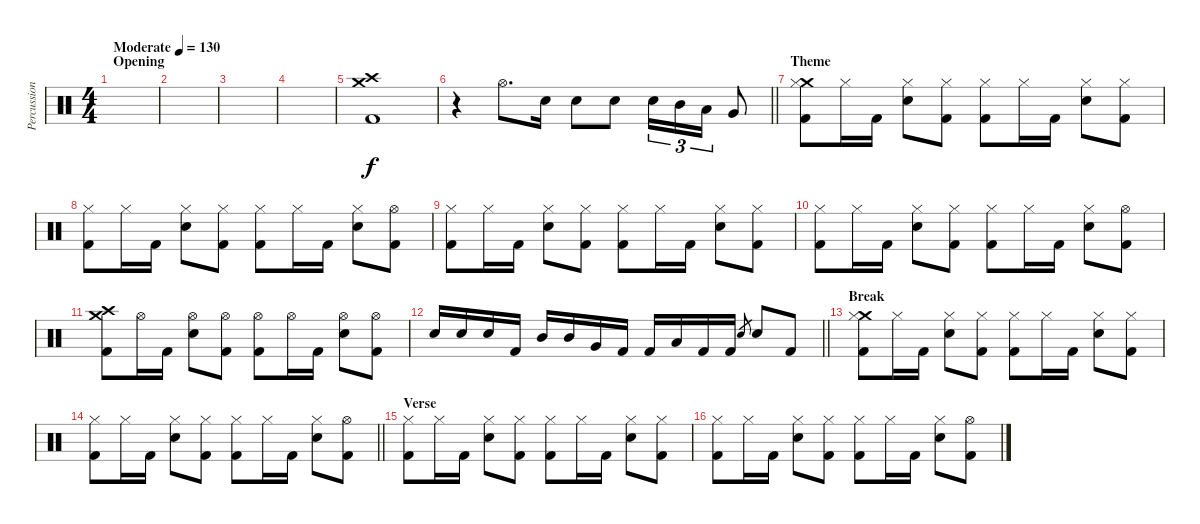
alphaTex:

\track ("Percussion" "Percussion") {instrument percussion}
\staff {score}
\articulation defaults
\ts (4 4)
\section ("" "Opening")
\tempo (130 "Moderate")
\clef neutral
\ks c
|
|
|
|
("Crash high (hit)" "Crash medium (hit)" "Kick (hit) 2").1 |
\barLineRight lightlight
r.4 "Hi-Hat (open)".8{d} "Snare (hit) 2".16 "Snare (hit) 2".8 "Snare (hit) 2".8 "Snare (hit) 2".16{tu (3 2)} "Mid Tom (hit)".16{tu (3 2)} "Low Tom (hit)".16{tu (3 2)} "Very Low Tom (hit)".8 |
\section ("" "Theme")
("Crash medium (hit)" "Hi-Hat (closed)" "Kick (hit) 2").8 "Hi-Hat (closed)".16 "Kick (hit) 2".16 ("Hi-Hat (closed)" "Snare (hit) 2").8 ("Hi-Hat (closed)" "Kick (hit) 2").8 ("Hi-Hat (closed)" "Kick (hit) 2").8 "Hi-Hat (closed)".16 "Kick (hit) 2".16 ("Hi-Hat (closed)" "Snare (hit) 2").8 ("Hi-Hat (closed)" "Kick (hit) 2").8 |
("Hi-Hat (closed)" "Kick (hit) 2").8 "Hi-Hat (closed)".16 "Kick (hit) 2".16 ("Hi-Hat (closed)" "Snare (hit) 2").8 ("Hi-Hat (closed)" "Kick (hit) 2").8 ("Hi-Hat (closed)" "Kick (hit) 2").8 "Hi-Hat (closed)".16 "Kick (hit) 2".16 ("Hi-Hat (closed)" "Snare (hit) 2").8 ("Hi-Hat (open)" "Kick (hit) 2").8 |
("Hi-Hat (closed)" "Kick (hit) 2").8 "Hi-Hat (closed)".16 "Kick (hit) 2".16 ("Hi-Hat (closed)" "Snare (hit) 2").8 ("Hi-Hat (closed)" "Kick (hit) 2").8 ("Hi-Hat (closed)" "Kick (hit) 2").8 "Hi-Hat (closed)".16 "Kick (hit) 2".16 ("Hi-Hat (closed)" "Snare (hit) 2").8 ("Hi-Hat (closed)" "Kick (hit) 2").8 |
("Hi-Hat (closed)" "Kick (hit) 2").8 "Hi-Hat (closed)".16 "Kick (hit) 2".16 ("Hi-Hat (closed)" "Snare (hit) 2").8 ("Hi-Hat (closed)" "Kick (hit) 2").8 ("Hi-Hat (closed)" "Kick (hit) 2").8 "Hi-Hat (closed)".16 "Kick (hit) 2".16 ("Hi-Hat (closed)" "Snare (hit) 2").8 ("Hi-Hat (open)" "Kick (hit) 2").8 |
("Crash high (hit)" "Crash medium (hit)" "Kick (hit) 2").8 "Hi-Hat (open)".16 "Kick (hit) 2".16 ("Hi-Hat (open)" "Snare (hit) 2").8 ("Hi-Hat (open)" "Kick (hit) 2").8 ("Hi-Hat (open)" "Kick (hit) 2").8 "Hi-Hat (open)".16 "Kick (hit) 2".16 ("Hi-Hat (open)" "Snare (hit) 2").8 ("Hi-Hat (open)" "Kick (hit) 2").8 |
\barLineRight lightlight "Snare (hit) 2".16 "Snare (hit) 2".16 "Snare (hit) 2".16 "Kick (hit) 2".16 "Mid Tom (hit)".16 "Mid Tom (hit)".16 "Very Low Tom (hit)".16 "Kick (hit) 2".16 "Kick (hit) 2".16 "Low Floor Tom (hit)".16 "Kick (hit) 2".16 "Kick (hit) 2".16 "Snare (hit) 2".8{gr} "Snare (hit) 2".8 "Kick (hit) 2".8
|
\section ("" "Break")
("Crash medium (hit)" "Hi-Hat (closed)" "Kick (hit) 2").8 "Hi-Hat (closed)".16 "Kick (hit) 2".16 ("Hi-Hat (closed)" "Snare (hit) 2").8 ("Hi-Hat (closed)" "Kick (hit) 2").8 ("Hi-Hat (closed)" "Kick (hit) 2").8 "Hi-Hat (closed)".16 "Kick (hit) 2".16 ("Hi-Hat (closed)" "Snare (hit) 2").8 ("Hi-Hat (closed)" "Kick (hit) 2").8 |
\barLineRight lightlight
("Hi-Hat (closed)" "Kick (hit) 2").8 "Hi-Hat (closed)".16 "Kick (hit) 2".16 ("Hi-Hat (closed)" "Snare (hit) 2").8 ("Hi-Hat (closed)" "Kick (hit) 2").8 ("Hi-Hat (closed)" "Kick (hit) 2").8 "Hi-Hat (closed)".16 "Kick (hit) 2".16 ("Hi-Hat (closed)" "Snare (hit) 2").8 ("Hi-Hat (open)" "Kick (hit) 2").8 |
\section ("" "Verse")
("Hi-Hat (closed)" "Kick (hit) 2").8 "Hi-Hat (closed)".16 "Kick (hit) 2".16 ("Hi-Hat (closed)" "Snare (hit) 2").8 ("Hi-Hat (closed)" "Kick (hit) 2").8 ("Hi-Hat (closed)" "Kick (hit) 2").8 "Hi-Hat (closed)".16 "Kick (hit) 2".16 ("Hi-Hat (closed)" "Snare (hit) 2").8 ("Hi-Hat (closed)" "Kick (hit) 2").8 |
("Hi-Hat (closed)" "Kick (hit) 2").8 "Hi-Hat (closed)".16 "Kick (hit) 2".16 ("Hi-Hat (closed)" "Snare (hit) 2").8 ("Hi-Hat (closed)" "Kick (hit) 2").8 ("Hi-Hat (closed)" "Kick (hit) 2").8 "Hi-Hat (closed)".16 "Kick (hit) 2".16 ("Hi-Hat (closed)" "Snare (hit) 2").8 ("Hi-Hat (open)" "Kick (hit) 2").8
